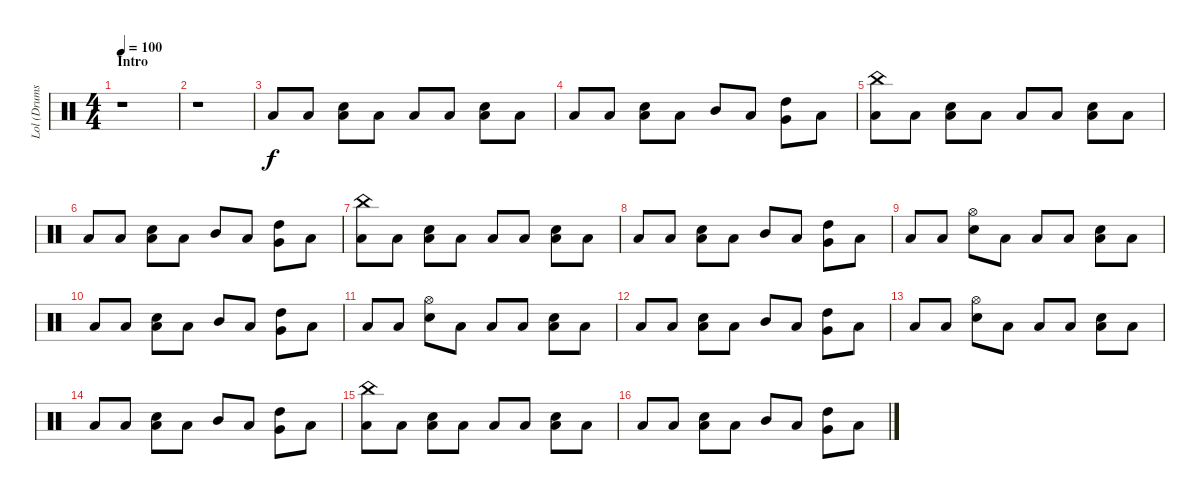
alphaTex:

\track ("Lol (Drums)" "Lol (Drums") {instrument percussion}
\staff {score}
\articulation defaults
\ts (4 4)
\section ("" "Intro")
\tempo 100
\clef neutral
\ks c
r.1{dy f} |
r.1 |
"Low Tom (hit)".8 "Low Tom (hit)".8 ("Low Tom (hit)" "Snare (hit) 2").8 "Low Tom (hit)".8 "Low Tom (hit)".8 "Low Tom (hit)".8 ("Low Tom (hit)" "Snare (hit) 2").8 "Low Tom (hit)".8 |
"Low Tom (hit)".8 "Low Tom (hit)".8 ("Low Tom (hit)" "Snare (hit) 2").8 "Low Tom (hit)".8 "Mid Tom (hit)".8 "Low Tom (hit)".8 ("High Tom (hit)" "Very Low Tom (hit)").8 "Low Floor Tom (hit)".8 |
("China (hit)" "Low Tom (hit)").8 "Low Tom (hit)".8 ("Low Tom (hit)" "Snare (hit) 2").8 "Low Tom (hit)".8 "Low Tom (hit)".8 "Low Tom (hit)".8 ("Low Tom (hit)" "Snare (hit) 2").8 "Low Tom (hit)".8 |
"Low Tom (hit)".8 "Low Tom (hit)".8 ("Low Tom (hit)" "Snare (hit) 2").8 "Low Tom (hit)".8 "Mid Tom (hit)".8 "Low Tom (hit)".8 ("High Tom (hit)" "Very Low Tom (hit)").8 "Low Floor Tom (hit)".8 |
("China (hit)" "Low Tom (hit)").8 "Low Tom (hit)".8 ("Low Tom (hit)" "Snare (hit) 2").8 "Low Tom (hit)".8 "Low Tom (hit)".8 "Low Tom (hit)".8 ("Low Tom (hit)" "Snare (hit) 2").8 "Low Tom (hit)".8 |
"Low Tom (hit)".8 "Low Tom (hit)".8 ("Low Tom (hit)" "Snare (hit) 2").8 "Low Tom (hit)".8 "Mid Tom (hit)".8 "Low Tom (hit)".8 ("High Tom (hit)" "Very Low Tom (hit)").8 "Low Floor Tom (hit)".8 |
"Low Tom (hit)".8{volume 12} "Low Tom (hit)".8 ("Hi-Hat (open)" "Snare (hit) 2").8 "Low Tom (hit)".8 "Low Tom (hit)".8 "Low Tom (hit)".8 ("Low Tom (hit)" "Snare (hit) 2").8 "Low Tom (hit)".8 |
"Low Tom (hit)".8 "Low Tom (hit)".8 ("Low Tom (hit)" "Snare (hit) 2").8 "Low Tom (hit)".8 "Mid Tom (hit)".8 "Low Tom (hit)".8 ("High Tom (hit)" "Very Low Tom (hit)").8 "Low Floor Tom (hit)".8 |
"Low Tom (hit)".8 "Low Tom (hit)".8 ("Hi-Hat (open)" "Snare (hit) 2").8 "Low Tom (hit)".8 "Low Tom (hit)".8 "Low Tom (hit)".8 ("Low Tom (hit)" "Snare (hit) 2").8 "Low Tom (hit)".8 |
"Low Tom (hit)".8 "Low Tom (hit)".8 ("Low Tom (hit)" "Snare (hit) 2").8 "Low Tom (hit)".8 "Mid Tom (hit)".8 "Low Tom (hit)".8 ("High Tom (hit)" "Very Low Tom (hit)").8 "Low Floor Tom (hit)".8 |
"Low Tom (hit)".8 "Low Tom (hit)".8 ("Hi-Hat (open)" "Snare (hit) 2").8 "Low Tom (hit)".8 "Low Tom (hit)".8 "Low Tom (hit)".8 ("Low Tom (hit)" "Snare (hit) 2").8 "Low Tom (hit)".8 |
"Low Tom (hit)".8 "Low Tom (hit)".8 ("Low Tom (hit)" "Snare (hit) 2").8 "Low Tom (hit)".8 "Mid Tom (hit)".8 "Low Tom (hit)".8 ("High Tom (hit)" "Very Low Tom (hit)").8 "Low Floor Tom (hit)".8 |
("China (hit)" "Low Tom (hit)").8{volume 16} "Low Tom (hit)".8 ("Low Tom (hit)" "Snare (hit) 2").8 "Low Tom (hit)".8 "Low Tom (hit)".8 "Low Tom (hit)".8 ("Low Tom (hit)" "Snare (hit) 2").8 "Low Tom (hit)".8 |
"Low Tom (hit)".8 "Low Tom (hit)".8 ("Low Tom (hit)" "Snare (hit) 2").8 "Low Tom (hit)".8 "Mid Tom (hit)".8 "Low Tom (hit)".8 ("High Tom (hit)" "Very Low Tom (hit)").8 "Low Floor Tom (hit)".8
